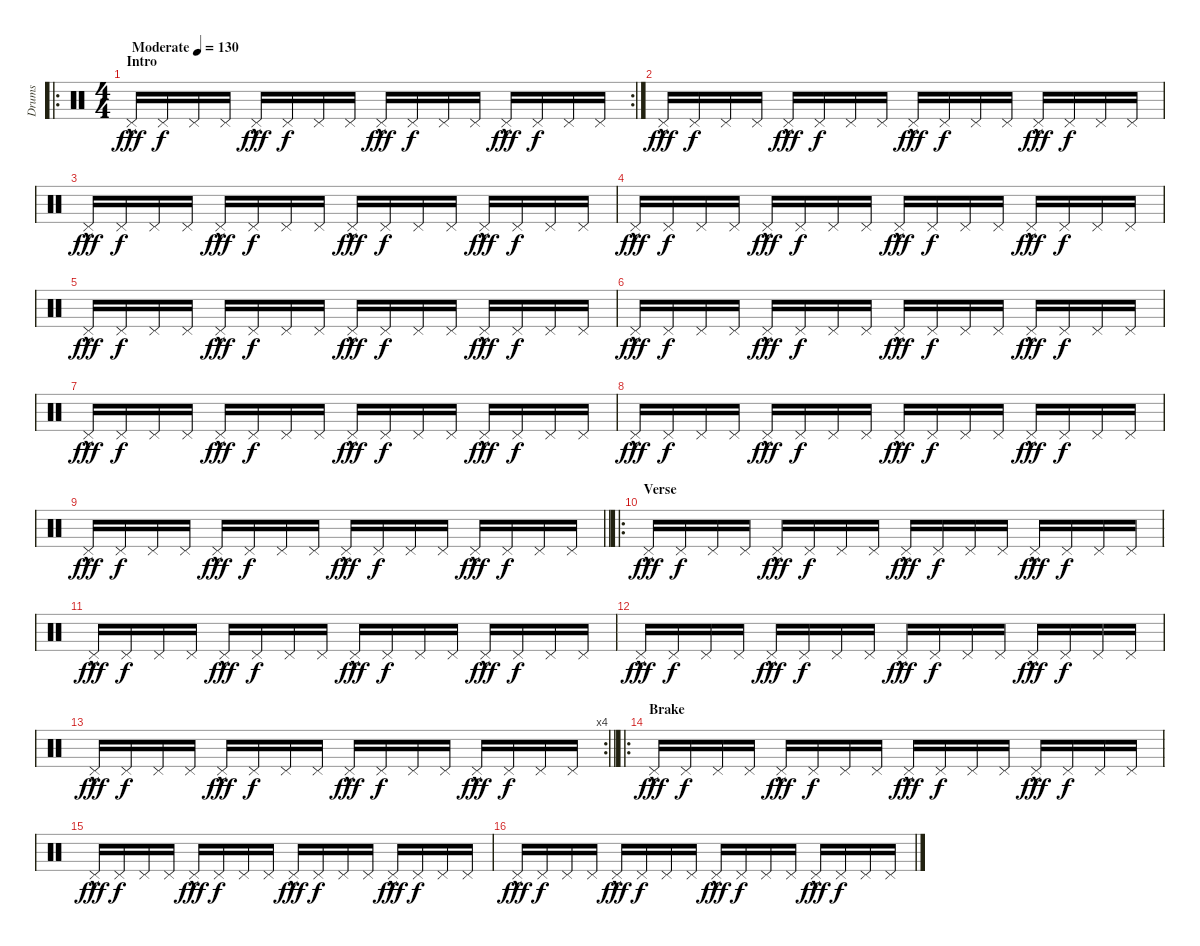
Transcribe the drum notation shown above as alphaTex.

\track ("Drums" "Drums") {instrument percussion}
\staff {score}
\articulation defaults
\ro
\rc 2
\ts (4 4)
\section ("" "Intro")
\tempo (130 "Moderate")
\clef neutral
\ks c "Pedal Hi-Hat (hit)"{hac}.16{dy fff} "Pedal Hi-Hat (hit)".16{dy f} "Pedal Hi-Hat (hit)".16 "Pedal Hi-Hat (hit)".16 "Pedal Hi-Hat (hit)"{hac}.16{dy fff} "Pedal Hi-Hat (hit)".16{dy f} "Pedal Hi-Hat (hit)".16 "Pedal Hi-Hat (hit)".16 "Pedal Hi-Hat (hit)"{hac}.16{dy fff} "Pedal Hi-Hat (hit)".16{dy f} "Pedal Hi-Hat (hit)".16 "Pedal Hi-Hat (hit)".16 "Pedal Hi-Hat (hit)"{hac}.16{dy fff} "Pedal Hi-Hat (hit)".16{dy f} "Pedal Hi-Hat (hit)".16 "Pedal Hi-Hat (hit)".16
|
"Pedal Hi-Hat (hit)"{hac}.16{dy fff} "Pedal Hi-Hat (hit)".16{dy f} "Pedal Hi-Hat (hit)".16 "Pedal Hi-Hat (hit)".16 "Pedal Hi-Hat (hit)"{hac}.16{dy fff} "Pedal Hi-Hat (hit)".16{dy f} "Pedal Hi-Hat (hit)".16 "Pedal Hi-Hat (hit)".16 "Pedal Hi-Hat (hit)"{hac}.16{dy fff} "Pedal Hi-Hat (hit)".16{dy f} "Pedal Hi-Hat (hit)".16 "Pedal Hi-Hat (hit)".16 "Pedal Hi-Hat (hit)"{hac}.16{dy fff} "Pedal Hi-Hat (hit)".16{dy f} "Pedal Hi-Hat (hit)".16 "Pedal Hi-Hat (hit)".16 |
"Pedal Hi-Hat (hit)"{hac}.16{dy fff} "Pedal Hi-Hat (hit)".16{dy f} "Pedal Hi-Hat (hit)".16 "Pedal Hi-Hat (hit)".16 "Pedal Hi-Hat (hit)"{hac}.16{dy fff} "Pedal Hi-Hat (hit)".16{dy f} "Pedal Hi-Hat (hit)".16 "Pedal Hi-Hat (hit)".16 "Pedal Hi-Hat (hit)"{hac}.16{dy fff} "Pedal Hi-Hat (hit)".16{dy f} "Pedal Hi-Hat (hit)".16 "Pedal Hi-Hat (hit)".16 "Pedal Hi-Hat (hit)"{hac}.16{dy fff} "Pedal Hi-Hat (hit)".16{dy f} "Pedal Hi-Hat (hit)".16 "Pedal Hi-Hat (hit)".16 |
"Pedal Hi-Hat (hit)"{hac}.16{dy fff} "Pedal Hi-Hat (hit)".16{dy f} "Pedal Hi-Hat (hit)".16 "Pedal Hi-Hat (hit)".16 "Pedal Hi-Hat (hit)"{hac}.16{dy fff} "Pedal Hi-Hat (hit)".16{dy f} "Pedal Hi-Hat (hit)".16 "Pedal Hi-Hat (hit)".16 "Pedal Hi-Hat (hit)"{hac}.16{dy fff} "Pedal Hi-Hat (hit)".16{dy f} "Pedal Hi-Hat (hit)".16 "Pedal Hi-Hat (hit)".16 "Pedal Hi-Hat (hit)"{hac}.16{dy fff} "Pedal Hi-Hat (hit)".16{dy f} "Pedal Hi-Hat (hit)".16 "Pedal Hi-Hat (hit)".16 |
"Pedal Hi-Hat (hit)"{hac}.16{dy fff} "Pedal Hi-Hat (hit)".16{dy f} "Pedal Hi-Hat (hit)".16 "Pedal Hi-Hat (hit)".16 "Pedal Hi-Hat (hit)"{hac}.16{dy fff} "Pedal Hi-Hat (hit)".16{dy f} "Pedal Hi-Hat (hit)".16 "Pedal Hi-Hat (hit)".16 "Pedal Hi-Hat (hit)"{hac}.16{dy fff} "Pedal Hi-Hat (hit)".16{dy f} "Pedal Hi-Hat (hit)".16 "Pedal Hi-Hat (hit)".16 "Pedal Hi-Hat (hit)"{hac}.16{dy fff} "Pedal Hi-Hat (hit)".16{dy f} "Pedal Hi-Hat (hit)".16 "Pedal Hi-Hat (hit)".16 |
"Pedal Hi-Hat (hit)"{hac}.16{dy fff} "Pedal Hi-Hat (hit)".16{dy f} "Pedal Hi-Hat (hit)".16 "Pedal Hi-Hat (hit)".16 "Pedal Hi-Hat (hit)"{hac}.16{dy fff} "Pedal Hi-Hat (hit)".16{dy f} "Pedal Hi-Hat (hit)".16 "Pedal Hi-Hat (hit)".16 "Pedal Hi-Hat (hit)"{hac}.16{dy fff} "Pedal Hi-Hat (hit)".16{dy f} "Pedal Hi-Hat (hit)".16 "Pedal Hi-Hat (hit)".16 "Pedal Hi-Hat (hit)"{hac}.16{dy fff} "Pedal Hi-Hat (hit)".16{dy f} "Pedal Hi-Hat (hit)".16 "Pedal Hi-Hat (hit)".16 |
"Pedal Hi-Hat (hit)"{hac}.16{dy fff} "Pedal Hi-Hat (hit)".16{dy f} "Pedal Hi-Hat (hit)".16 "Pedal Hi-Hat (hit)".16 "Pedal Hi-Hat (hit)"{hac}.16{dy fff} "Pedal Hi-Hat (hit)".16{dy f} "Pedal Hi-Hat (hit)".16 "Pedal Hi-Hat (hit)".16 "Pedal Hi-Hat (hit)"{hac}.16{dy fff} "Pedal Hi-Hat (hit)".16{dy f} "Pedal Hi-Hat (hit)".16 "Pedal Hi-Hat (hit)".16 "Pedal Hi-Hat (hit)"{hac}.16{dy fff} "Pedal Hi-Hat (hit)".16{dy f} "Pedal Hi-Hat (hit)".16 "Pedal Hi-Hat (hit)".16 |
"Pedal Hi-Hat (hit)"{hac}.16{dy fff} "Pedal Hi-Hat (hit)".16{dy f} "Pedal Hi-Hat (hit)".16 "Pedal Hi-Hat (hit)".16 "Pedal Hi-Hat (hit)"{hac}.16{dy fff} "Pedal Hi-Hat (hit)".16{dy f} "Pedal Hi-Hat (hit)".16 "Pedal Hi-Hat (hit)".16 "Pedal Hi-Hat (hit)"{hac}.16{dy fff} "Pedal Hi-Hat (hit)".16{dy f} "Pedal Hi-Hat (hit)".16 "Pedal Hi-Hat (hit)".16 "Pedal Hi-Hat (hit)"{hac}.16{dy fff} "Pedal Hi-Hat (hit)".16{dy f} "Pedal Hi-Hat (hit)".16 "Pedal Hi-Hat (hit)".16 |
\barLineRight lightlight "Pedal Hi-Hat (hit)"{hac}.16{dy fff} "Pedal Hi-Hat (hit)".16{dy f} "Pedal Hi-Hat (hit)".16 "Pedal Hi-Hat (hit)".16 "Pedal Hi-Hat (hit)"{hac}.16{dy fff} "Pedal Hi-Hat (hit)".16{dy f} "Pedal Hi-Hat (hit)".16 "Pedal Hi-Hat (hit)".16 "Pedal Hi-Hat (hit)"{hac}.16{dy fff} "Pedal Hi-Hat (hit)".16{dy f} "Pedal Hi-Hat (hit)".16 "Pedal Hi-Hat (hit)".16 "Pedal Hi-Hat (hit)"{hac}.16{dy fff} "Pedal Hi-Hat (hit)".16{dy f} "Pedal Hi-Hat (hit)".16 "Pedal Hi-Hat (hit)".16
|
\ro
\section ("" "Verse")
"Pedal Hi-Hat (hit)"{hac}.16{dy fff} "Pedal Hi-Hat (hit)".16{dy f} "Pedal Hi-Hat (hit)".16 "Pedal Hi-Hat (hit)".16 "Pedal Hi-Hat (hit)"{hac}.16{dy fff} "Pedal Hi-Hat (hit)".16{dy f} "Pedal Hi-Hat (hit)".16 "Pedal Hi-Hat (hit)".16 "Pedal Hi-Hat (hit)"{hac}.16{dy fff} "Pedal Hi-Hat (hit)".16{dy f} "Pedal Hi-Hat (hit)".16 "Pedal Hi-Hat (hit)".16 "Pedal Hi-Hat (hit)"{hac}.16{dy fff} "Pedal Hi-Hat (hit)".16{dy f} "Pedal Hi-Hat (hit)".16 "Pedal Hi-Hat (hit)".16 |
"Pedal Hi-Hat (hit)"{hac}.16{dy fff} "Pedal Hi-Hat (hit)".16{dy f} "Pedal Hi-Hat (hit)".16 "Pedal Hi-Hat (hit)".16 "Pedal Hi-Hat (hit)"{hac}.16{dy fff} "Pedal Hi-Hat (hit)".16{dy f} "Pedal Hi-Hat (hit)".16 "Pedal Hi-Hat (hit)".16 "Pedal Hi-Hat (hit)"{hac}.16{dy fff} "Pedal Hi-Hat (hit)".16{dy f} "Pedal Hi-Hat (hit)".16 "Pedal Hi-Hat (hit)".16 "Pedal Hi-Hat (hit)"{hac}.16{dy fff} "Pedal Hi-Hat (hit)".16{dy f} "Pedal Hi-Hat (hit)".16 "Pedal Hi-Hat (hit)".16 |
"Pedal Hi-Hat (hit)"{hac}.16{dy fff} "Pedal Hi-Hat (hit)".16{dy f} "Pedal Hi-Hat (hit)".16 "Pedal Hi-Hat (hit)".16 "Pedal Hi-Hat (hit)"{hac}.16{dy fff} "Pedal Hi-Hat (hit)".16{dy f} "Pedal Hi-Hat (hit)".16 "Pedal Hi-Hat (hit)".16 "Pedal Hi-Hat (hit)"{hac}.16{dy fff} "Pedal Hi-Hat (hit)".16{dy f} "Pedal Hi-Hat (hit)".16 "Pedal Hi-Hat (hit)".16 "Pedal Hi-Hat (hit)"{hac}.16{dy fff} "Pedal Hi-Hat (hit)".16{dy f} "Pedal Hi-Hat (hit)".16 "Pedal Hi-Hat (hit)".16 |
\rc 4
\barLineRight lightlight "Pedal Hi-Hat (hit)"{hac}.16{dy fff} "Pedal Hi-Hat (hit)".16{dy f} "Pedal Hi-Hat (hit)".16 "Pedal Hi-Hat (hit)".16 "Pedal Hi-Hat (hit)"{hac}.16{dy fff} "Pedal Hi-Hat (hit)".16{dy f} "Pedal Hi-Hat (hit)".16 "Pedal Hi-Hat (hit)".16 "Pedal Hi-Hat (hit)"{hac}.16{dy fff} "Pedal Hi-Hat (hit)".16{dy f} "Pedal Hi-Hat (hit)".16 "Pedal Hi-Hat (hit)".16 "Pedal Hi-Hat (hit)"{hac}.16{dy fff} "Pedal Hi-Hat (hit)".16{dy f} "Pedal Hi-Hat (hit)".16 "Pedal Hi-Hat (hit)".16
|
\ro
\section ("" "Brake")
"Pedal Hi-Hat (hit)"{hac}.16{dy fff} "Pedal Hi-Hat (hit)".16{dy f} "Pedal Hi-Hat (hit)".16 "Pedal Hi-Hat (hit)".16 "Pedal Hi-Hat (hit)"{hac}.16{dy fff} "Pedal Hi-Hat (hit)".16{dy f} "Pedal Hi-Hat (hit)".16 "Pedal Hi-Hat (hit)".16 "Pedal Hi-Hat (hit)"{hac}.16{dy fff} "Pedal Hi-Hat (hit)".16{dy f} "Pedal Hi-Hat (hit)".16 "Pedal Hi-Hat (hit)".16 "Pedal Hi-Hat (hit)"{hac}.16{dy fff} "Pedal Hi-Hat (hit)".16{dy f} "Pedal Hi-Hat (hit)".16 "Pedal Hi-Hat (hit)".16 |
"Pedal Hi-Hat (hit)"{hac}.16{dy fff} "Pedal Hi-Hat (hit)".16{dy f} "Pedal Hi-Hat (hit)".16 "Pedal Hi-Hat (hit)".16 "Pedal Hi-Hat (hit)"{hac}.16{dy fff} "Pedal Hi-Hat (hit)".16{dy f} "Pedal Hi-Hat (hit)".16 "Pedal Hi-Hat (hit)".16 "Pedal Hi-Hat (hit)"{hac}.16{dy fff} "Pedal Hi-Hat (hit)".16{dy f} "Pedal Hi-Hat (hit)".16 "Pedal Hi-Hat (hit)".16 "Pedal Hi-Hat (hit)"{hac}.16{dy fff} "Pedal Hi-Hat (hit)".16{dy f} "Pedal Hi-Hat (hit)".16 "Pedal Hi-Hat (hit)".16 |
"Pedal Hi-Hat (hit)"{hac}.16{dy fff} "Pedal Hi-Hat (hit)".16{dy f} "Pedal Hi-Hat (hit)".16 "Pedal Hi-Hat (hit)".16 "Pedal Hi-Hat (hit)"{hac}.16{dy fff} "Pedal Hi-Hat (hit)".16{dy f} "Pedal Hi-Hat (hit)".16 "Pedal Hi-Hat (hit)".16 "Pedal Hi-Hat (hit)"{hac}.16{dy fff} "Pedal Hi-Hat (hit)".16{dy f} "Pedal Hi-Hat (hit)".16 "Pedal Hi-Hat (hit)".16 "Pedal Hi-Hat (hit)"{hac}.16{dy fff} "Pedal Hi-Hat (hit)".16{dy f} "Pedal Hi-Hat (hit)".16 "Pedal Hi-Hat (hit)".16
